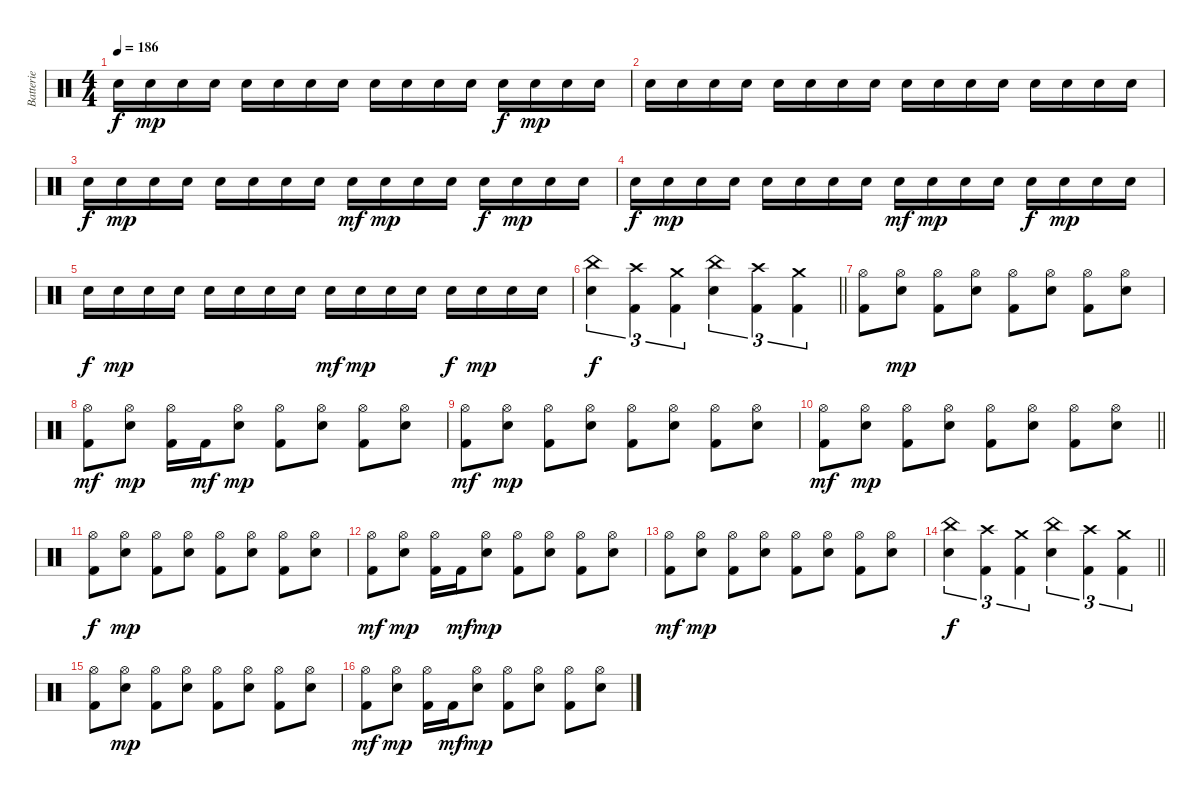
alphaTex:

\track ("Batterie" "Batterie") {instrument percussion}
\staff {score}
\articulation defaults
\ts (4 4)
\tempo 186
\clef neutral
\ks c "Electric Snare (hit)".16{dy f} "Electric Snare (hit)".16{dy mp} "Electric Snare (hit)".16 "Electric Snare (hit)".16 "Electric Snare (hit)".16 "Electric Snare (hit)".16 "Electric Snare (hit)".16 "Electric Snare (hit)".16 "Electric Snare (hit)".16 "Electric Snare (hit)".16 "Electric Snare (hit)".16 "Electric Snare (hit)".16 "Electric Snare (hit)".16{dy f} "Electric Snare (hit)".16{dy mp} "Electric Snare (hit)".16 "Electric Snare (hit)".16
|
"Electric Snare (hit)".16 "Electric Snare (hit)".16 "Electric Snare (hit)".16 "Electric Snare (hit)".16 "Electric Snare (hit)".16 "Electric Snare (hit)".16 "Electric Snare (hit)".16 "Electric Snare (hit)".16 "Electric Snare (hit)".16 "Electric Snare (hit)".16 "Electric Snare (hit)".16 "Electric Snare (hit)".16 "Electric Snare (hit)".16 "Electric Snare (hit)".16 "Electric Snare (hit)".16 "Electric Snare (hit)".16 |
"Electric Snare (hit)".16{dy f} "Electric Snare (hit)".16{dy mp} "Electric Snare (hit)".16 "Electric Snare (hit)".16 "Electric Snare (hit)".16 "Electric Snare (hit)".16 "Electric Snare (hit)".16 "Electric Snare (hit)".16 "Electric Snare (hit)".16{dy mf} "Electric Snare (hit)".16{dy mp} "Electric Snare (hit)".16 "Electric Snare (hit)".16 "Electric Snare (hit)".16{dy f} "Electric Snare (hit)".16{dy mp} "Electric Snare (hit)".16 "Electric Snare (hit)".16 |
"Electric Snare (hit)".16{dy f} "Electric Snare (hit)".16{dy mp} "Electric Snare (hit)".16 "Electric Snare (hit)".16 "Electric Snare (hit)".16 "Electric Snare (hit)".16 "Electric Snare (hit)".16 "Electric Snare (hit)".16 "Electric Snare (hit)".16{dy mf} "Electric Snare (hit)".16{dy mp} "Electric Snare (hit)".16 "Electric Snare (hit)".16 "Electric Snare (hit)".16{dy f} "Electric Snare (hit)".16{dy mp} "Electric Snare (hit)".16 "Electric Snare (hit)".16 |
"Electric Snare (hit)".16{dy f} "Electric Snare (hit)".16{dy mp} "Electric Snare (hit)".16 "Electric Snare (hit)".16 "Electric Snare (hit)".16 "Electric Snare (hit)".16 "Electric Snare (hit)".16 "Electric Snare (hit)".16 "Electric Snare (hit)".16{dy mf} "Electric Snare (hit)".16{dy mp} "Electric Snare (hit)".16 "Electric Snare (hit)".16 "Electric Snare (hit)".16{dy f} "Electric Snare (hit)".16{dy mp} "Electric Snare (hit)".16 "Electric Snare (hit)".16 |
\barLineRight lightlight
("Electric Snare (hit)" "China (hit)").4{tu (3 2) dy f} ("Kick (hit) 2" "Crash high (hit)").4{tu (3 2)} ("Kick (hit) 2" "Crash medium (hit)").4{tu (3 2)} ("Electric Snare (hit)" "China (hit)").4{tu (3 2)} ("Kick (hit) 2" "Crash high (hit)").4{tu (3 2)} ("Kick (hit) 2" "Crash medium (hit)").4{tu (3 2)} |
("Kick (hit) 2" "Hi-Hat (open)").8 ("Electric Snare (hit)" "Hi-Hat (open)").8{dy mp} ("Kick (hit) 2" "Hi-Hat (open)").8 ("Electric Snare (hit)" "Hi-Hat (open)").8 ("Kick (hit) 2" "Hi-Hat (open)").8 ("Electric Snare (hit)" "Hi-Hat (open)").8 ("Kick (hit) 2" "Hi-Hat (open)").8 ("Electric Snare (hit)" "Hi-Hat (open)").8 |
("Kick (hit) 2" "Hi-Hat (open)").8{dy mf} ("Electric Snare (hit)" "Hi-Hat (open)").8{dy mp} ("Kick (hit) 2" "Hi-Hat (open)").16 "Kick (hit) 2".16{dy mf} ("Electric Snare (hit)" "Hi-Hat (open)").8{dy mp} ("Kick (hit) 2" "Hi-Hat (open)").8 ("Electric Snare (hit)" "Hi-Hat (open)").8 ("Kick (hit) 2" "Hi-Hat (open)").8 ("Electric Snare (hit)" "Hi-Hat (open)").8 |
("Kick (hit) 2" "Hi-Hat (open)").8{dy mf} ("Electric Snare (hit)" "Hi-Hat (open)").8{dy mp} ("Kick (hit) 2" "Hi-Hat (open)").8 ("Electric Snare (hit)" "Hi-Hat (open)").8 ("Kick (hit) 2" "Hi-Hat (open)").8 ("Electric Snare (hit)" "Hi-Hat (open)").8 ("Kick (hit) 2" "Hi-Hat (open)").8 ("Electric Snare (hit)" "Hi-Hat (open)").8 |
\barLineRight lightlight
("Kick (hit) 2" "Hi-Hat (open)").8{dy mf} ("Electric Snare (hit)" "Hi-Hat (open)").8{dy mp} ("Kick (hit) 2" "Hi-Hat (open)").8 ("Electric Snare (hit)" "Hi-Hat (open)").8 ("Kick (hit) 2" "Hi-Hat (open)").8 ("Electric Snare (hit)" "Hi-Hat (open)").8 ("Kick (hit) 2" "Hi-Hat (open)").8 ("Electric Snare (hit)" "Hi-Hat (open)").8 |
("Kick (hit) 2" "Hi-Hat (open)").8{dy f} ("Electric Snare (hit)" "Hi-Hat (open)").8{dy mp} ("Kick (hit) 2" "Hi-Hat (open)").8 ("Electric Snare (hit)" "Hi-Hat (open)").8 ("Kick (hit) 2" "Hi-Hat (open)").8 ("Electric Snare (hit)" "Hi-Hat (open)").8 ("Kick (hit) 2" "Hi-Hat (open)").8 ("Electric Snare (hit)" "Hi-Hat (open)").8 |
("Kick (hit) 2" "Hi-Hat (open)").8{dy mf} ("Electric Snare (hit)" "Hi-Hat (open)").8{dy mp} ("Kick (hit) 2" "Hi-Hat (open)").16 "Kick (hit) 2".16{dy mf} ("Electric Snare (hit)" "Hi-Hat (open)").8{dy mp} ("Kick (hit) 2" "Hi-Hat (open)").8 ("Electric Snare (hit)" "Hi-Hat (open)").8 ("Kick (hit) 2" "Hi-Hat (open)").8 ("Electric Snare (hit)" "Hi-Hat (open)").8 |
("Kick (hit) 2" "Hi-Hat (open)").8{dy mf} ("Electric Snare (hit)" "Hi-Hat (open)").8{dy mp} ("Kick (hit) 2" "Hi-Hat (open)").8 ("Electric Snare (hit)" "Hi-Hat (open)").8 ("Kick (hit) 2" "Hi-Hat (open)").8 ("Electric Snare (hit)" "Hi-Hat (open)").8 ("Kick (hit) 2" "Hi-Hat (open)").8 ("Electric Snare (hit)" "Hi-Hat (open)").8 |
\barLineRight lightlight
("Electric Snare (hit)" "China (hit)").4{tu (3 2) dy f} ("Kick (hit) 2" "Crash high (hit)").4{tu (3 2)} ("Kick (hit) 2" "Crash medium (hit)").4{tu (3 2)} ("Electric Snare (hit)" "China (hit)").4{tu (3 2)} ("Kick (hit) 2" "Crash high (hit)").4{tu (3 2)} ("Kick (hit) 2" "Crash medium (hit)").4{tu (3 2)} |
("Kick (hit) 2" "Hi-Hat (open)").8 ("Electric Snare (hit)" "Hi-Hat (open)").8{dy mp} ("Kick (hit) 2" "Hi-Hat (open)").8 ("Electric Snare (hit)" "Hi-Hat (open)").8 ("Kick (hit) 2" "Hi-Hat (open)").8 ("Electric Snare (hit)" "Hi-Hat (open)").8 ("Kick (hit) 2" "Hi-Hat (open)").8 ("Electric Snare (hit)" "Hi-Hat (open)").8 |
("Kick (hit) 2" "Hi-Hat (open)").8{dy mf} ("Electric Snare (hit)" "Hi-Hat (open)").8{dy mp} ("Kick (hit) 2" "Hi-Hat (open)").16 "Kick (hit) 2".16{dy mf} ("Electric Snare (hit)" "Hi-Hat (open)").8{dy mp} ("Kick (hit) 2" "Hi-Hat (open)").8 ("Electric Snare (hit)" "Hi-Hat (open)").8 ("Kick (hit) 2" "Hi-Hat (open)").8 ("Electric Snare (hit)" "Hi-Hat (open)").8
